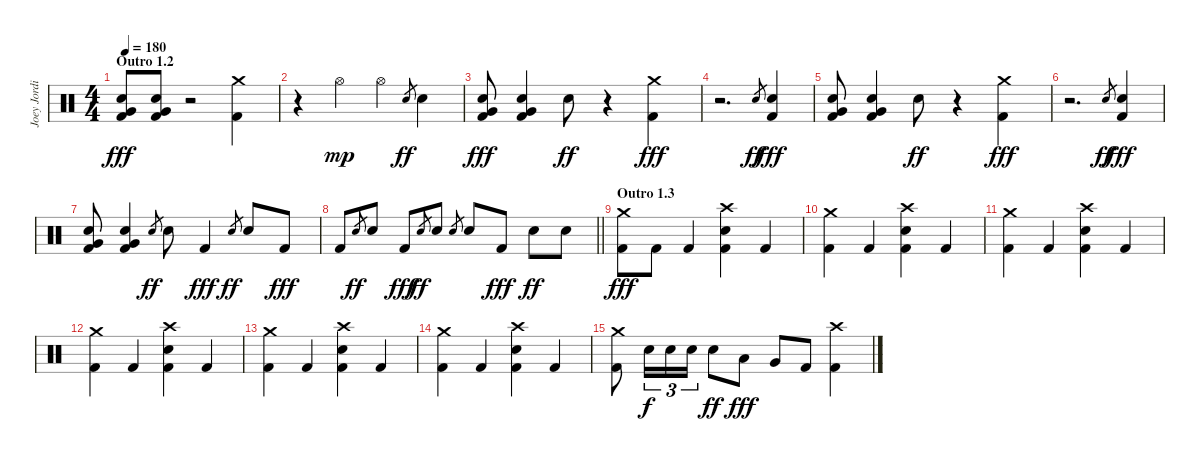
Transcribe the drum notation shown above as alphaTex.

\track ("Joey Jordison" "Joey Jordi") {instrument percussion}
\staff {score}
\articulation defaults
\ts (4 4)
\section ("" "Outro 1.2")
\tempo 180
\clef neutral
\ks c
("Electric Snare (hit)" "Very Low Tom (hit)" "Kick (hit) 2").8{dy fff} ("Electric Snare (hit)" "Very Low Tom (hit)" "Kick (hit) 2").8 r.2 ("Crash medium (hit)" "Kick (hit) 2").4 |
r.4 "Hi-Hat (open)".4{dy mp} "Hi-Hat (open)".4 "Electric Snare (hit)".8{gr dy ff} "Electric Snare (hit)".4 |
("Electric Snare (hit)" "Very Low Tom (hit)" "Kick (hit) 2").8{dy fff} ("Electric Snare (hit)" "Very Low Tom (hit)" "Kick (hit) 2").4 "Electric Snare (hit)".8{dy ff} r.4 ("Crash medium (hit)" "Kick (hit) 2").4{dy fff} |
r.2{d} "Electric Snare (hit)".8{gr dy ff} ("Electric Snare (hit)" "Kick (hit) 2").4{dy fff} |
("Electric Snare (hit)" "Very Low Tom (hit)" "Kick (hit) 2").8 ("Electric Snare (hit)" "Very Low Tom (hit)" "Kick (hit) 2").4 "Electric Snare (hit)".8{dy ff} r.4 ("Crash medium (hit)" "Kick (hit) 2").4{dy fff} |
r.2{d} "Electric Snare (hit)".8{gr dy ff} ("Electric Snare (hit)" "Kick (hit) 2").4{dy fff} |
("Electric Snare (hit)" "Very Low Tom (hit)" "Kick (hit) 2").8 ("Electric Snare (hit)" "Very Low Tom (hit)" "Kick (hit) 2").4 "Electric Snare (hit)".8{gr dy ff} "Electric Snare (hit)".8 "Kick (hit) 2".4{dy fff} "Electric Snare (hit)".8{gr dy ff} "Electric Snare (hit)".8 "Kick (hit) 2".8{dy fff} |
\barLineRight lightlight "Kick (hit) 2".8 "Electric Snare (hit)".8{gr dy ff} "Electric Snare (hit)".8 "Kick (hit) 2".8{dy fff} "Electric Snare (hit)".8{gr dy ff} "Electric Snare (hit)".8 "Electric Snare (hit)".8{gr} "Electric Snare (hit)".8 "Kick (hit) 2".8{dy fff} "Electric Snare (hit)".8{dy ff} "Electric Snare (hit)".8
|
\section ("" "Outro 1.3")
("Crash medium (hit)" "Kick (hit) 2").8{dy fff} "Kick (hit) 2".8 "Kick (hit) 2".4 ("Crash high (hit)" "Electric Snare (hit)" "Kick (hit) 2").4 "Kick (hit) 2".4 |
("Crash medium (hit)" "Kick (hit) 2").4 "Kick (hit) 2".4 ("Crash high (hit)" "Electric Snare (hit)" "Kick (hit) 2").4 "Kick (hit) 2".4 |
("Crash medium (hit)" "Kick (hit) 2").4 "Kick (hit) 2".4 ("Crash high (hit)" "Electric Snare (hit)" "Kick (hit) 2").4 "Kick (hit) 2".4 |
("Crash medium (hit)" "Kick (hit) 2").4 "Kick (hit) 2".4 ("Crash high (hit)" "Electric Snare (hit)" "Kick (hit) 2").4 "Kick (hit) 2".4 |
("Crash medium (hit)" "Kick (hit) 2").4 "Kick (hit) 2".4 ("Crash high (hit)" "Electric Snare (hit)" "Kick (hit) 2").4 "Kick (hit) 2".4 |
("Crash medium (hit)" "Kick (hit) 2").4 "Kick (hit) 2".4 ("Crash high (hit)" "Electric Snare (hit)" "Kick (hit) 2").4 "Kick (hit) 2".4 |
("Crash medium (hit)" "Kick (hit) 2").8 "Electric Snare (hit)".16{tu (3 2) dy f} "Electric Snare (hit)".16{tu (3 2)} "Electric Snare (hit)".16{tu (3 2)} "Electric Snare (hit)".8{dy ff} "Low Tom (hit)".8{dy fff} "Very Low Tom (hit)".8 "Kick (hit) 2".8 ("Crash high (hit)" "Kick (hit) 2").4
